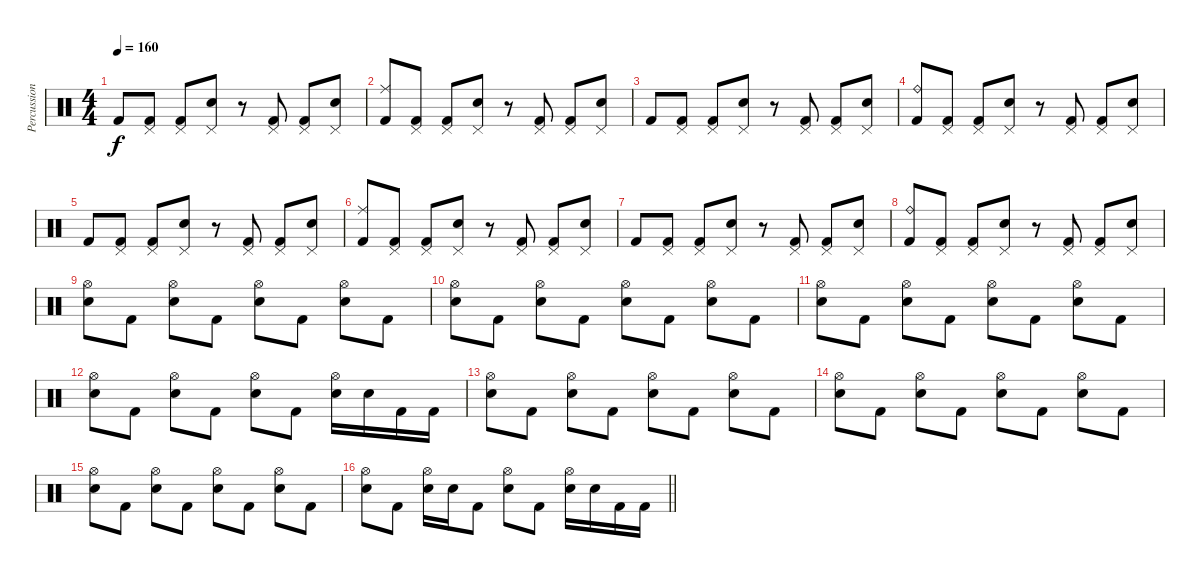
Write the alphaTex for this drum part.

\track ("Percussion" "Percussion") {instrument percussion}
\staff {score}
\articulation defaults
\ts (4 4)
\tempo 160
\clef neutral
\ks c "Kick (hit) 2".8{dy f}
("Pedal Hi-Hat (hit)" "Kick (hit) 2").8 ("Pedal Hi-Hat (hit)" "Kick (hit) 2").8 ("Pedal Hi-Hat (hit)" "Electric Snare (hit)").8 r.8 ("Pedal Hi-Hat (hit)" "Kick (hit) 2").8 ("Pedal Hi-Hat (hit)" "Kick (hit) 2").8 ("Pedal Hi-Hat (hit)" "Electric Snare (hit)").8 |
("Ride (middle)" "Kick (hit) 2").8 ("Pedal Hi-Hat (hit)" "Kick (hit) 2").8 ("Pedal Hi-Hat (hit)" "Kick (hit) 2").8 ("Pedal Hi-Hat (hit)" "Electric Snare (hit)").8 r.8 ("Pedal Hi-Hat (hit)" "Kick (hit) 2").8 ("Pedal Hi-Hat (hit)" "Kick (hit) 2").8 ("Pedal Hi-Hat (hit)" "Electric Snare (hit)").8 |
"Kick (hit) 2".8 ("Pedal Hi-Hat (hit)" "Kick (hit) 2").8 ("Pedal Hi-Hat (hit)" "Kick (hit) 2").8 ("Pedal Hi-Hat (hit)" "Electric Snare (hit)").8 r.8 ("Pedal Hi-Hat (hit)" "Kick (hit) 2").8 ("Pedal Hi-Hat (hit)" "Kick (hit) 2").8 ("Pedal Hi-Hat (hit)" "Electric Snare (hit)").8 |
("Ride (bell)" "Kick (hit) 2").8 ("Pedal Hi-Hat (hit)" "Kick (hit) 2").8 ("Pedal Hi-Hat (hit)" "Kick (hit) 2").8 ("Pedal Hi-Hat (hit)" "Electric Snare (hit)").8 r.8 ("Pedal Hi-Hat (hit)" "Kick (hit) 2").8 ("Pedal Hi-Hat (hit)" "Kick (hit) 2").8 ("Pedal Hi-Hat (hit)" "Electric Snare (hit)").8 |
"Kick (hit) 2".8 ("Pedal Hi-Hat (hit)" "Kick (hit) 2").8 ("Pedal Hi-Hat (hit)" "Kick (hit) 2").8 ("Pedal Hi-Hat (hit)" "Electric Snare (hit)").8 r.8 ("Pedal Hi-Hat (hit)" "Kick (hit) 2").8 ("Pedal Hi-Hat (hit)" "Kick (hit) 2").8 ("Pedal Hi-Hat (hit)" "Electric Snare (hit)").8 |
("Ride (middle)" "Kick (hit) 2").8 ("Pedal Hi-Hat (hit)" "Kick (hit) 2").8 ("Pedal Hi-Hat (hit)" "Kick (hit) 2").8 ("Pedal Hi-Hat (hit)" "Electric Snare (hit)").8 r.8 ("Pedal Hi-Hat (hit)" "Kick (hit) 2").8 ("Pedal Hi-Hat (hit)" "Kick (hit) 2").8 ("Pedal Hi-Hat (hit)" "Electric Snare (hit)").8 |
"Kick (hit) 2".8 ("Pedal Hi-Hat (hit)" "Kick (hit) 2").8 ("Pedal Hi-Hat (hit)" "Kick (hit) 2").8 ("Pedal Hi-Hat (hit)" "Electric Snare (hit)").8 r.8 ("Pedal Hi-Hat (hit)" "Kick (hit) 2").8 ("Pedal Hi-Hat (hit)" "Kick (hit) 2").8 ("Pedal Hi-Hat (hit)" "Electric Snare (hit)").8 |
("Ride (bell)" "Kick (hit) 2").8 ("Pedal Hi-Hat (hit)" "Kick (hit) 2").8 ("Pedal Hi-Hat (hit)" "Kick (hit) 2").8 ("Pedal Hi-Hat (hit)" "Electric Snare (hit)").8 r.8 ("Pedal Hi-Hat (hit)" "Kick (hit) 2").8 ("Pedal Hi-Hat (hit)" "Kick (hit) 2").8 ("Pedal Hi-Hat (hit)" "Electric Snare (hit)").8 |
("Hi-Hat (open)" "Electric Snare (hit)").8 "Kick (hit) 2".8 ("Hi-Hat (open)" "Electric Snare (hit)").8 "Kick (hit) 2".8 ("Hi-Hat (open)" "Electric Snare (hit)").8 "Kick (hit) 2".8 ("Hi-Hat (open)" "Electric Snare (hit)").8 "Kick (hit) 2".8 |
("Hi-Hat (open)" "Electric Snare (hit)").8 "Kick (hit) 2".8 ("Hi-Hat (open)" "Electric Snare (hit)").8 "Kick (hit) 2".8 ("Hi-Hat (open)" "Electric Snare (hit)").8 "Kick (hit) 2".8 ("Hi-Hat (open)" "Electric Snare (hit)").8 "Kick (hit) 2".8 |
("Hi-Hat (open)" "Electric Snare (hit)").8 "Kick (hit) 2".8 ("Hi-Hat (open)" "Electric Snare (hit)").8 "Kick (hit) 2".8 ("Hi-Hat (open)" "Electric Snare (hit)").8 "Kick (hit) 2".8 ("Hi-Hat (open)" "Electric Snare (hit)").8 "Kick (hit) 2".8 |
("Hi-Hat (open)" "Electric Snare (hit)").8 "Kick (hit) 2".8 ("Hi-Hat (open)" "Electric Snare (hit)").8 "Kick (hit) 2".8 ("Hi-Hat (open)" "Electric Snare (hit)").8 "Kick (hit) 2".8 ("Hi-Hat (open)" "Electric Snare (hit)").16 "Electric Snare (hit)".16 "Kick (hit) 2".16 "Kick (hit) 2".16 |
("Hi-Hat (open)" "Electric Snare (hit)").8 "Kick (hit) 2".8 ("Hi-Hat (open)" "Electric Snare (hit)").8 "Kick (hit) 2".8 ("Hi-Hat (open)" "Electric Snare (hit)").8 "Kick (hit) 2".8 ("Hi-Hat (open)" "Electric Snare (hit)").8 "Kick (hit) 2".8 |
("Hi-Hat (open)" "Electric Snare (hit)").8 "Kick (hit) 2".8 ("Hi-Hat (open)" "Electric Snare (hit)").8 "Kick (hit) 2".8 ("Hi-Hat (open)" "Electric Snare (hit)").8 "Kick (hit) 2".8 ("Hi-Hat (open)" "Electric Snare (hit)").8 "Kick (hit) 2".8 |
("Hi-Hat (open)" "Electric Snare (hit)").8 "Kick (hit) 2".8 ("Hi-Hat (open)" "Electric Snare (hit)").8 "Kick (hit) 2".8 ("Hi-Hat (open)" "Electric Snare (hit)").8 "Kick (hit) 2".8 ("Hi-Hat (open)" "Electric Snare (hit)").8 "Kick (hit) 2".8 |
\barLineRight lightlight
("Hi-Hat (open)" "Electric Snare (hit)").8 "Kick (hit) 2".8 ("Hi-Hat (open)" "Electric Snare (hit)").16 "Electric Snare (hit)".16 "Kick (hit) 2".8 ("Hi-Hat (open)" "Electric Snare (hit)").8 "Kick (hit) 2".8 ("Hi-Hat (open)" "Electric Snare (hit)").16 "Electric Snare (hit)".16 "Kick (hit) 2".16 "Kick (hit) 2".16
